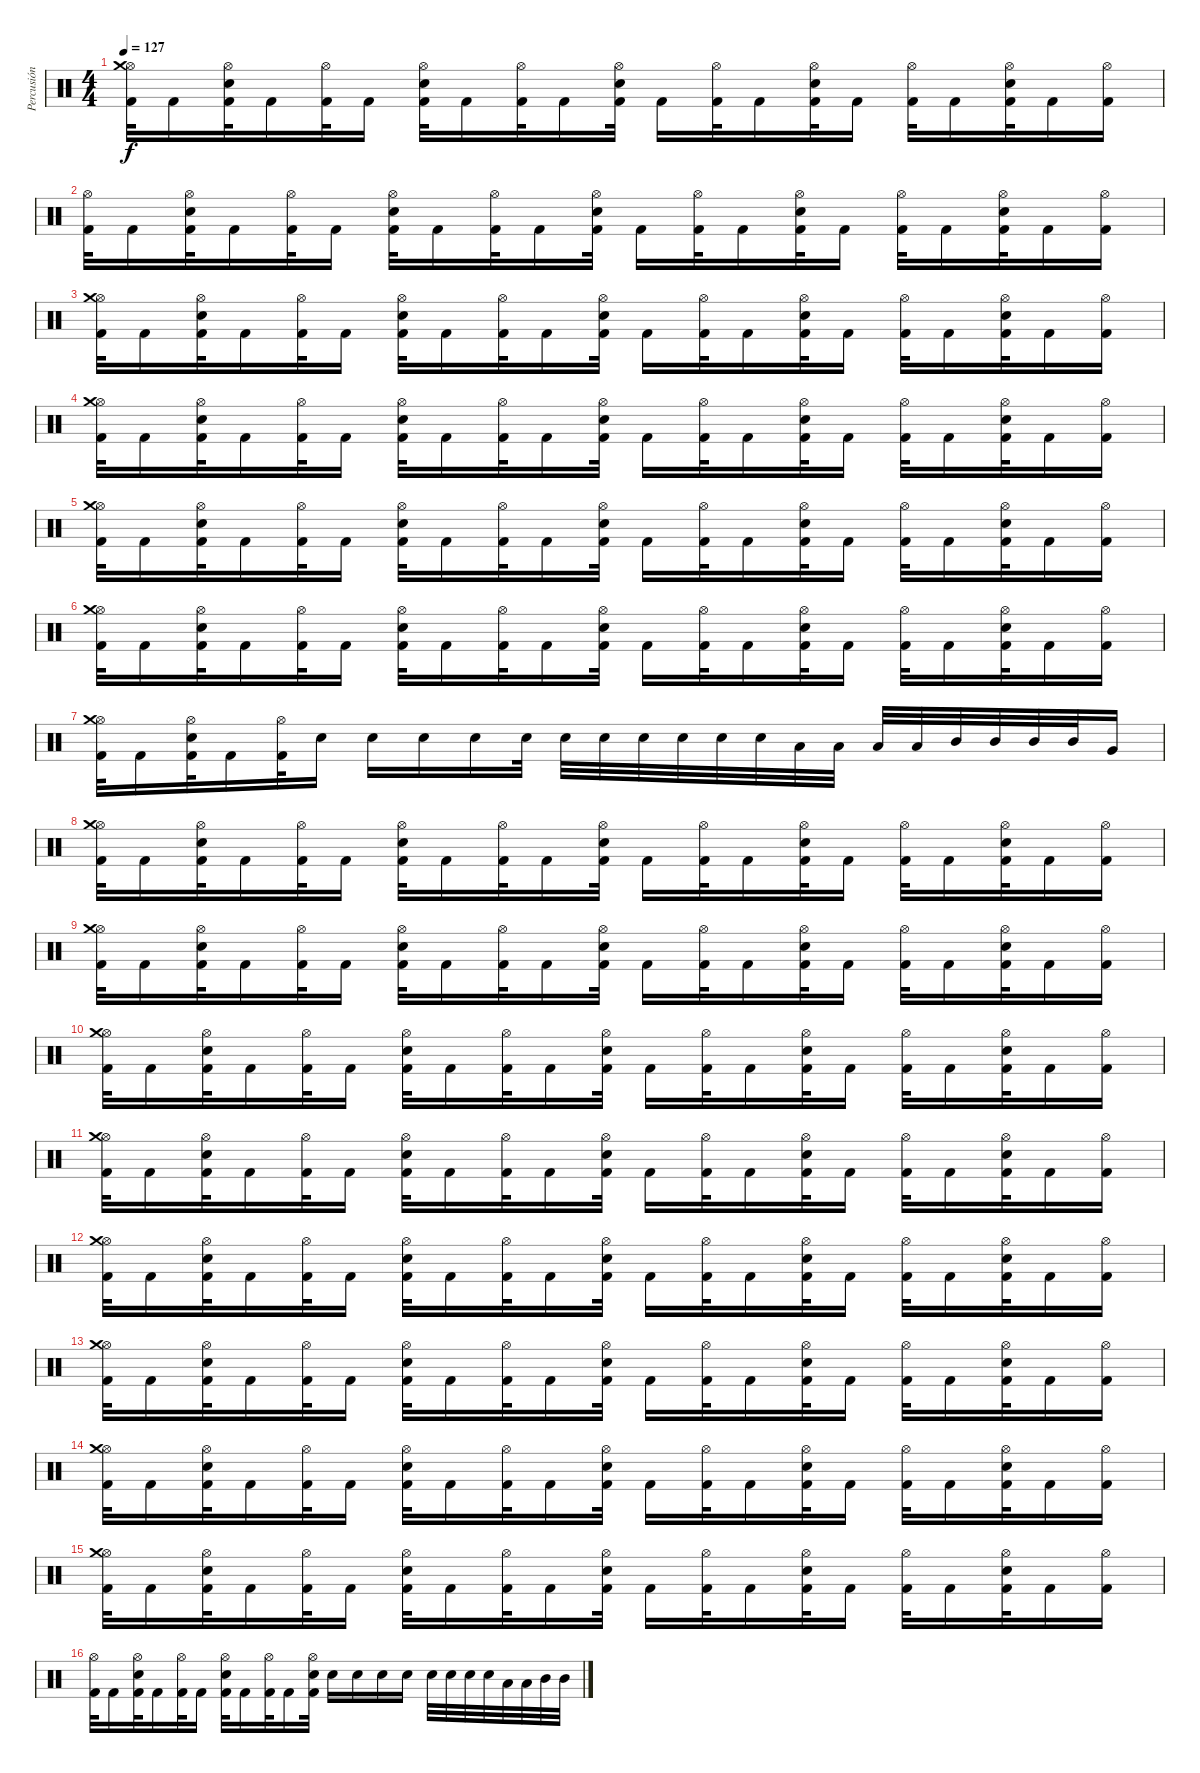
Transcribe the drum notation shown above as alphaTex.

\track ("Percusión" "Percusión") {instrument percussion}
\staff {score}
\articulation defaults
\ts (4 4)
\tempo 127
\clef neutral
\ks c
("Hi-Hat (open)" "Kick (hit) 2" "Crash medium (hit)").32{dy f} "Kick (hit) 2".16 ("Hi-Hat (open)" "Electric Snare (hit)" "Kick (hit) 2").32 "Kick (hit) 2".16 ("Hi-Hat (open)" "Kick (hit) 2").32 "Kick (hit) 2".16 ("Hi-Hat (open)" "Electric Snare (hit)" "Kick (hit) 2").32 "Kick (hit) 2".16 ("Hi-Hat (open)" "Kick (hit) 2").32 "Kick (hit) 2".16 ("Hi-Hat (open)" "Electric Snare (hit)" "Kick (hit) 2").32 "Kick (hit) 2".16 ("Hi-Hat (open)" "Kick (hit) 2").32 "Kick (hit) 2".16 ("Hi-Hat (open)" "Electric Snare (hit)" "Kick (hit) 2").32 "Kick (hit) 2".16 ("Hi-Hat (open)" "Kick (hit) 2").32 "Kick (hit) 2".16 ("Hi-Hat (open)" "Electric Snare (hit)" "Kick (hit) 2").32 "Kick (hit) 2".16 ("Hi-Hat (open)" "Kick (hit) 2").16 |
("Hi-Hat (open)" "Kick (hit) 2").32 "Kick (hit) 2".16 ("Hi-Hat (open)" "Electric Snare (hit)" "Kick (hit) 2").32 "Kick (hit) 2".16 ("Hi-Hat (open)" "Kick (hit) 2").32 "Kick (hit) 2".16 ("Hi-Hat (open)" "Electric Snare (hit)" "Kick (hit) 2").32 "Kick (hit) 2".16 ("Hi-Hat (open)" "Kick (hit) 2").32 "Kick (hit) 2".16 ("Hi-Hat (open)" "Electric Snare (hit)" "Kick (hit) 2").32 "Kick (hit) 2".16 ("Hi-Hat (open)" "Kick (hit) 2").32 "Kick (hit) 2".16 ("Hi-Hat (open)" "Electric Snare (hit)" "Kick (hit) 2").32 "Kick (hit) 2".16 ("Hi-Hat (open)" "Kick (hit) 2").32 "Kick (hit) 2".16 ("Hi-Hat (open)" "Electric Snare (hit)" "Kick (hit) 2").32 "Kick (hit) 2".16 ("Hi-Hat (open)" "Kick (hit) 2").16 |
("Hi-Hat (open)" "Kick (hit) 2" "Crash medium (hit)").32 "Kick (hit) 2".16 ("Hi-Hat (open)" "Electric Snare (hit)" "Kick (hit) 2").32 "Kick (hit) 2".16 ("Hi-Hat (open)" "Kick (hit) 2").32 "Kick (hit) 2".16 ("Hi-Hat (open)" "Electric Snare (hit)" "Kick (hit) 2").32 "Kick (hit) 2".16 ("Hi-Hat (open)" "Kick (hit) 2").32 "Kick (hit) 2".16 ("Hi-Hat (open)" "Electric Snare (hit)" "Kick (hit) 2").32 "Kick (hit) 2".16 ("Hi-Hat (open)" "Kick (hit) 2").32 "Kick (hit) 2".16 ("Hi-Hat (open)" "Electric Snare (hit)" "Kick (hit) 2").32 "Kick (hit) 2".16 ("Hi-Hat (open)" "Kick (hit) 2").32 "Kick (hit) 2".16 ("Hi-Hat (open)" "Electric Snare (hit)" "Kick (hit) 2").32 "Kick (hit) 2".16 ("Hi-Hat (open)" "Kick (hit) 2").16 |
("Hi-Hat (open)" "Kick (hit) 2" "Crash medium (hit)").32 "Kick (hit) 2".16 ("Hi-Hat (open)" "Electric Snare (hit)" "Kick (hit) 2").32 "Kick (hit) 2".16 ("Hi-Hat (open)" "Kick (hit) 2").32 "Kick (hit) 2".16 ("Hi-Hat (open)" "Electric Snare (hit)" "Kick (hit) 2").32 "Kick (hit) 2".16 ("Hi-Hat (open)" "Kick (hit) 2").32 "Kick (hit) 2".16 ("Hi-Hat (open)" "Electric Snare (hit)" "Kick (hit) 2").32 "Kick (hit) 2".16 ("Hi-Hat (open)" "Kick (hit) 2").32 "Kick (hit) 2".16 ("Hi-Hat (open)" "Electric Snare (hit)" "Kick (hit) 2").32 "Kick (hit) 2".16 ("Hi-Hat (open)" "Kick (hit) 2").32 "Kick (hit) 2".16 ("Hi-Hat (open)" "Electric Snare (hit)" "Kick (hit) 2").32 "Kick (hit) 2".16 ("Hi-Hat (open)" "Kick (hit) 2").16 |
("Hi-Hat (open)" "Kick (hit) 2" "Crash medium (hit)").32 "Kick (hit) 2".16 ("Hi-Hat (open)" "Electric Snare (hit)" "Kick (hit) 2").32 "Kick (hit) 2".16 ("Hi-Hat (open)" "Kick (hit) 2").32 "Kick (hit) 2".16 ("Hi-Hat (open)" "Electric Snare (hit)" "Kick (hit) 2").32 "Kick (hit) 2".16 ("Hi-Hat (open)" "Kick (hit) 2").32 "Kick (hit) 2".16 ("Hi-Hat (open)" "Electric Snare (hit)" "Kick (hit) 2").32 "Kick (hit) 2".16 ("Hi-Hat (open)" "Kick (hit) 2").32 "Kick (hit) 2".16 ("Hi-Hat (open)" "Electric Snare (hit)" "Kick (hit) 2").32 "Kick (hit) 2".16 ("Hi-Hat (open)" "Kick (hit) 2").32 "Kick (hit) 2".16 ("Hi-Hat (open)" "Electric Snare (hit)" "Kick (hit) 2").32 "Kick (hit) 2".16 ("Hi-Hat (open)" "Kick (hit) 2").16 |
("Hi-Hat (open)" "Kick (hit) 2" "Crash medium (hit)").32 "Kick (hit) 2".16 ("Hi-Hat (open)" "Electric Snare (hit)" "Kick (hit) 2").32 "Kick (hit) 2".16 ("Hi-Hat (open)" "Kick (hit) 2").32 "Kick (hit) 2".16 ("Hi-Hat (open)" "Electric Snare (hit)" "Kick (hit) 2").32 "Kick (hit) 2".16 ("Hi-Hat (open)" "Kick (hit) 2").32 "Kick (hit) 2".16 ("Hi-Hat (open)" "Electric Snare (hit)" "Kick (hit) 2").32 "Kick (hit) 2".16 ("Hi-Hat (open)" "Kick (hit) 2").32 "Kick (hit) 2".16 ("Hi-Hat (open)" "Electric Snare (hit)" "Kick (hit) 2").32 "Kick (hit) 2".16 ("Hi-Hat (open)" "Kick (hit) 2").32 "Kick (hit) 2".16 ("Hi-Hat (open)" "Electric Snare (hit)" "Kick (hit) 2").32 "Kick (hit) 2".16 ("Hi-Hat (open)" "Kick (hit) 2").16 |
("Hi-Hat (open)" "Kick (hit) 2" "Crash medium (hit)").32 "Kick (hit) 2".16 ("Hi-Hat (open)" "Electric Snare (hit)" "Kick (hit) 2").32 "Kick (hit) 2".16 ("Hi-Hat (open)" "Kick (hit) 2").32 "Snare (hit) 2".16 "Snare (hit) 2".16 "Snare (hit) 2".16 "Snare (hit) 2".16 "Snare (hit) 2".32 "Snare (hit) 2".32 "Snare (hit) 2".32 "Snare (hit) 2".32 "Snare (hit) 2".32 "Snare (hit) 2".32 "Snare (hit) 2".32 "Low Tom (hit)".32 "Low Tom (hit)".32 "Low Tom (hit)".32 "Low Tom (hit)".32 "Mid Tom (hit)".32 "Mid Tom (hit)".32 "Mid Tom (hit)".32 "Mid Tom (hit)".32 "Very Low Tom (hit)".16 |
("Hi-Hat (open)" "Kick (hit) 2" "Crash medium (hit)").32 "Kick (hit) 2".16 ("Hi-Hat (open)" "Electric Snare (hit)" "Kick (hit) 2").32 "Kick (hit) 2".16 ("Hi-Hat (open)" "Kick (hit) 2").32 "Kick (hit) 2".16 ("Hi-Hat (open)" "Electric Snare (hit)" "Kick (hit) 2").32 "Kick (hit) 2".16 ("Hi-Hat (open)" "Kick (hit) 2").32 "Kick (hit) 2".16 ("Hi-Hat (open)" "Electric Snare (hit)" "Kick (hit) 2").32 "Kick (hit) 2".16 ("Hi-Hat (open)" "Kick (hit) 2").32 "Kick (hit) 2".16 ("Hi-Hat (open)" "Electric Snare (hit)" "Kick (hit) 2").32 "Kick (hit) 2".16 ("Hi-Hat (open)" "Kick (hit) 2").32 "Kick (hit) 2".16 ("Hi-Hat (open)" "Electric Snare (hit)" "Kick (hit) 2").32 "Kick (hit) 2".16 ("Hi-Hat (open)" "Kick (hit) 2").16 |
("Hi-Hat (open)" "Kick (hit) 2" "Crash medium (hit)").32 "Kick (hit) 2".16 ("Hi-Hat (open)" "Electric Snare (hit)" "Kick (hit) 2").32 "Kick (hit) 2".16 ("Hi-Hat (open)" "Kick (hit) 2").32 "Kick (hit) 2".16 ("Hi-Hat (open)" "Electric Snare (hit)" "Kick (hit) 2").32 "Kick (hit) 2".16 ("Hi-Hat (open)" "Kick (hit) 2").32 "Kick (hit) 2".16 ("Hi-Hat (open)" "Electric Snare (hit)" "Kick (hit) 2").32 "Kick (hit) 2".16 ("Hi-Hat (open)" "Kick (hit) 2").32 "Kick (hit) 2".16 ("Hi-Hat (open)" "Electric Snare (hit)" "Kick (hit) 2").32 "Kick (hit) 2".16 ("Hi-Hat (open)" "Kick (hit) 2").32 "Kick (hit) 2".16 ("Hi-Hat (open)" "Electric Snare (hit)" "Kick (hit) 2").32 "Kick (hit) 2".16 ("Hi-Hat (open)" "Kick (hit) 2").16 |
("Hi-Hat (open)" "Kick (hit) 2" "Crash medium (hit)").32 "Kick (hit) 2".16 ("Hi-Hat (open)" "Electric Snare (hit)" "Kick (hit) 2").32 "Kick (hit) 2".16 ("Hi-Hat (open)" "Kick (hit) 2").32 "Kick (hit) 2".16 ("Hi-Hat (open)" "Electric Snare (hit)" "Kick (hit) 2").32 "Kick (hit) 2".16 ("Hi-Hat (open)" "Kick (hit) 2").32 "Kick (hit) 2".16 ("Hi-Hat (open)" "Electric Snare (hit)" "Kick (hit) 2").32 "Kick (hit) 2".16 ("Hi-Hat (open)" "Kick (hit) 2").32 "Kick (hit) 2".16 ("Hi-Hat (open)" "Electric Snare (hit)" "Kick (hit) 2").32 "Kick (hit) 2".16 ("Hi-Hat (open)" "Kick (hit) 2").32 "Kick (hit) 2".16 ("Hi-Hat (open)" "Electric Snare (hit)" "Kick (hit) 2").32 "Kick (hit) 2".16 ("Hi-Hat (open)" "Kick (hit) 2").16 |
("Hi-Hat (open)" "Kick (hit) 2" "Crash medium (hit)").32 "Kick (hit) 2".16 ("Hi-Hat (open)" "Electric Snare (hit)" "Kick (hit) 2").32 "Kick (hit) 2".16 ("Hi-Hat (open)" "Kick (hit) 2").32 "Kick (hit) 2".16 ("Hi-Hat (open)" "Electric Snare (hit)" "Kick (hit) 2").32 "Kick (hit) 2".16 ("Hi-Hat (open)" "Kick (hit) 2").32 "Kick (hit) 2".16 ("Hi-Hat (open)" "Electric Snare (hit)" "Kick (hit) 2").32 "Kick (hit) 2".16 ("Hi-Hat (open)" "Kick (hit) 2").32 "Kick (hit) 2".16 ("Hi-Hat (open)" "Electric Snare (hit)" "Kick (hit) 2").32 "Kick (hit) 2".16 ("Hi-Hat (open)" "Kick (hit) 2").32 "Kick (hit) 2".16 ("Hi-Hat (open)" "Electric Snare (hit)" "Kick (hit) 2").32 "Kick (hit) 2".16 ("Hi-Hat (open)" "Kick (hit) 2").16 |
("Hi-Hat (open)" "Kick (hit) 2" "Crash medium (hit)").32 "Kick (hit) 2".16 ("Hi-Hat (open)" "Electric Snare (hit)" "Kick (hit) 2").32 "Kick (hit) 2".16 ("Hi-Hat (open)" "Kick (hit) 2").32 "Kick (hit) 2".16 ("Hi-Hat (open)" "Electric Snare (hit)" "Kick (hit) 2").32 "Kick (hit) 2".16 ("Hi-Hat (open)" "Kick (hit) 2").32 "Kick (hit) 2".16 ("Hi-Hat (open)" "Electric Snare (hit)" "Kick (hit) 2").32 "Kick (hit) 2".16 ("Hi-Hat (open)" "Kick (hit) 2").32 "Kick (hit) 2".16 ("Hi-Hat (open)" "Electric Snare (hit)" "Kick (hit) 2").32 "Kick (hit) 2".16 ("Hi-Hat (open)" "Kick (hit) 2").32 "Kick (hit) 2".16 ("Hi-Hat (open)" "Electric Snare (hit)" "Kick (hit) 2").32 "Kick (hit) 2".16 ("Hi-Hat (open)" "Kick (hit) 2").16 |
("Hi-Hat (open)" "Kick (hit) 2" "Crash medium (hit)").32 "Kick (hit) 2".16 ("Hi-Hat (open)" "Electric Snare (hit)" "Kick (hit) 2").32 "Kick (hit) 2".16 ("Hi-Hat (open)" "Kick (hit) 2").32 "Kick (hit) 2".16 ("Hi-Hat (open)" "Electric Snare (hit)" "Kick (hit) 2").32 "Kick (hit) 2".16 ("Hi-Hat (open)" "Kick (hit) 2").32 "Kick (hit) 2".16 ("Hi-Hat (open)" "Electric Snare (hit)" "Kick (hit) 2").32 "Kick (hit) 2".16 ("Hi-Hat (open)" "Kick (hit) 2").32 "Kick (hit) 2".16 ("Hi-Hat (open)" "Electric Snare (hit)" "Kick (hit) 2").32 "Kick (hit) 2".16 ("Hi-Hat (open)" "Kick (hit) 2").32 "Kick (hit) 2".16 ("Hi-Hat (open)" "Electric Snare (hit)" "Kick (hit) 2").32 "Kick (hit) 2".16 ("Hi-Hat (open)" "Kick (hit) 2").16 |
("Hi-Hat (open)" "Kick (hit) 2" "Crash medium (hit)").32 "Kick (hit) 2".16 ("Hi-Hat (open)" "Electric Snare (hit)" "Kick (hit) 2").32 "Kick (hit) 2".16 ("Hi-Hat (open)" "Kick (hit) 2").32 "Kick (hit) 2".16 ("Hi-Hat (open)" "Electric Snare (hit)" "Kick (hit) 2").32 "Kick (hit) 2".16 ("Hi-Hat (open)" "Kick (hit) 2").32 "Kick (hit) 2".16 ("Hi-Hat (open)" "Electric Snare (hit)" "Kick (hit) 2").32 "Kick (hit) 2".16 ("Hi-Hat (open)" "Kick (hit) 2").32 "Kick (hit) 2".16 ("Hi-Hat (open)" "Electric Snare (hit)" "Kick (hit) 2").32 "Kick (hit) 2".16 ("Hi-Hat (open)" "Kick (hit) 2").32 "Kick (hit) 2".16 ("Hi-Hat (open)" "Electric Snare (hit)" "Kick (hit) 2").32 "Kick (hit) 2".16 ("Hi-Hat (open)" "Kick (hit) 2").16 |
("Hi-Hat (open)" "Kick (hit) 2" "Crash medium (hit)").32 "Kick (hit) 2".16 ("Hi-Hat (open)" "Electric Snare (hit)" "Kick (hit) 2").32 "Kick (hit) 2".16 ("Hi-Hat (open)" "Kick (hit) 2").32 "Kick (hit) 2".16 ("Hi-Hat (open)" "Electric Snare (hit)" "Kick (hit) 2").32 "Kick (hit) 2".16 ("Hi-Hat (open)" "Kick (hit) 2").32 "Kick (hit) 2".16 ("Hi-Hat (open)" "Electric Snare (hit)" "Kick (hit) 2").32 "Kick (hit) 2".16 ("Hi-Hat (open)" "Kick (hit) 2").32 "Kick (hit) 2".16 ("Hi-Hat (open)" "Electric Snare (hit)" "Kick (hit) 2").32 "Kick (hit) 2".16 ("Hi-Hat (open)" "Kick (hit) 2").32 "Kick (hit) 2".16 ("Hi-Hat (open)" "Electric Snare (hit)" "Kick (hit) 2").32 "Kick (hit) 2".16 ("Hi-Hat (open)" "Kick (hit) 2").16 |
("Hi-Hat (open)" "Kick (hit) 2").32 "Kick (hit) 2".16 ("Hi-Hat (open)" "Electric Snare (hit)" "Kick (hit) 2").32 "Kick (hit) 2".16 ("Hi-Hat (open)" "Kick (hit) 2").32 "Kick (hit) 2".16 ("Hi-Hat (open)" "Electric Snare (hit)" "Kick (hit) 2").32 "Kick (hit) 2".16 ("Hi-Hat (open)" "Kick (hit) 2").32 "Kick (hit) 2".16 ("Hi-Hat (open)" "Electric Snare (hit)" "Kick (hit) 2").32 "Snare (hit) 2".16 "Snare (hit) 2".16 "Snare (hit) 2".16 "Snare (hit) 2".16 "Snare (hit) 2".32 "Snare (hit) 2".32 "Snare (hit) 2".32 "Snare (hit) 2".32 "Low Tom (hit)".32 "Low Tom (hit)".32 "Mid Tom (hit)".32 "Mid Tom (hit)".32
